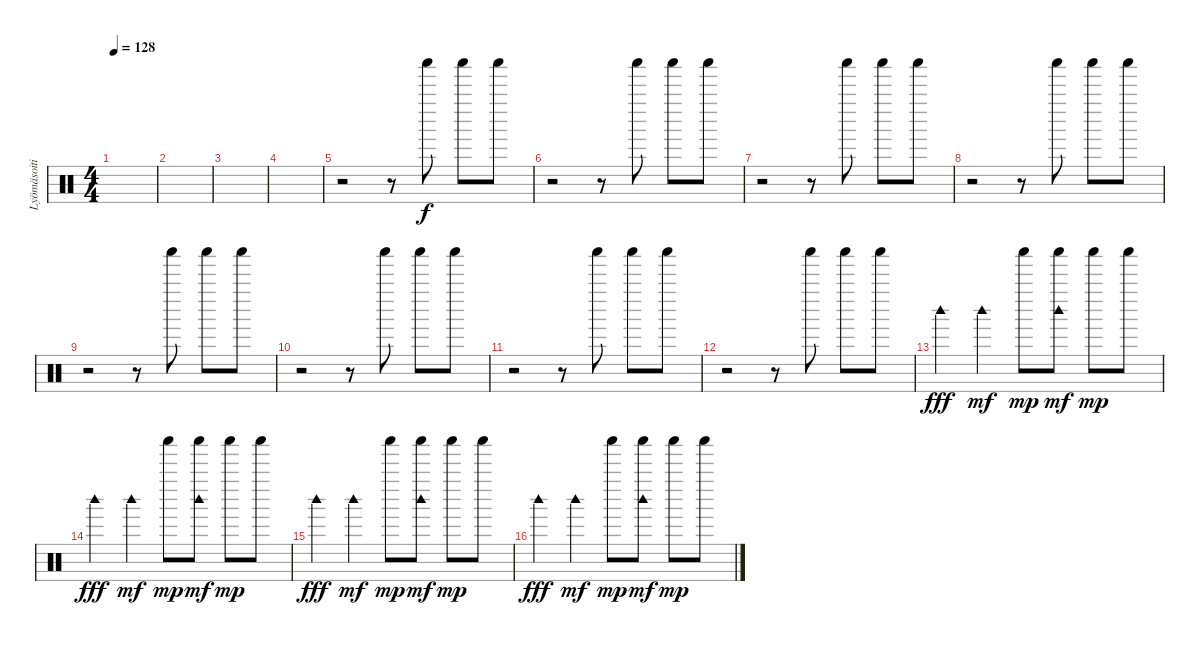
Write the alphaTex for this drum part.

\track ("Lyömäsoitin" "Lyömäsoiti") {instrument percussion}
\staff {score}
\articulation defaults
\ts (4 4)
\tempo 128
\clef neutral
\ks c
|
|
|
|
r.2 r.8 "Shaker (hit)".8 "Shaker (hit)".8 "Shaker (hit)".8 |
r.2 r.8 "Shaker (hit)".8 "Shaker (hit)".8 "Shaker (hit)".8 |
r.2 r.8 "Shaker (hit)".8 "Shaker (hit)".8 "Shaker (hit)".8 |
r.2 r.8 "Shaker (hit)".8 "Shaker (hit)".8 "Shaker (hit)".8 |
r.2 r.8 "Shaker (hit)".8 "Shaker (hit)".8 "Shaker (hit)".8 |
r.2 r.8 "Shaker (hit)".8 "Shaker (hit)".8 "Shaker (hit)".8 |
r.2 r.8 "Shaker (hit)".8 "Shaker (hit)".8 "Shaker (hit)".8 |
r.2 r.8 "Shaker (hit)".8 "Shaker (hit)".8 "Shaker (hit)".8 |
"Woodblock high (hit)".4{dy fff} "Woodblock high (hit)".4{dy mf} "Shaker (hit)".8{dy mp} ("Shaker (hit)" "Woodblock high (hit)").8{dy mf} "Shaker (hit)".8{dy mp} "Shaker (hit)".8 |
"Woodblock high (hit)".4{dy fff} "Woodblock high (hit)".4{dy mf} "Shaker (hit)".8{dy mp} ("Shaker (hit)" "Woodblock high (hit)").8{dy mf} "Shaker (hit)".8{dy mp} "Shaker (hit)".8 |
"Woodblock high (hit)".4{dy fff} "Woodblock high (hit)".4{dy mf} "Shaker (hit)".8{dy mp} ("Shaker (hit)" "Woodblock high (hit)").8{dy mf} "Shaker (hit)".8{dy mp} "Shaker (hit)".8 |
"Woodblock high (hit)".4{dy fff} "Woodblock high (hit)".4{dy mf} "Shaker (hit)".8{dy mp} ("Shaker (hit)" "Woodblock high (hit)").8{dy mf} "Shaker (hit)".8{dy mp} "Shaker (hit)".8
